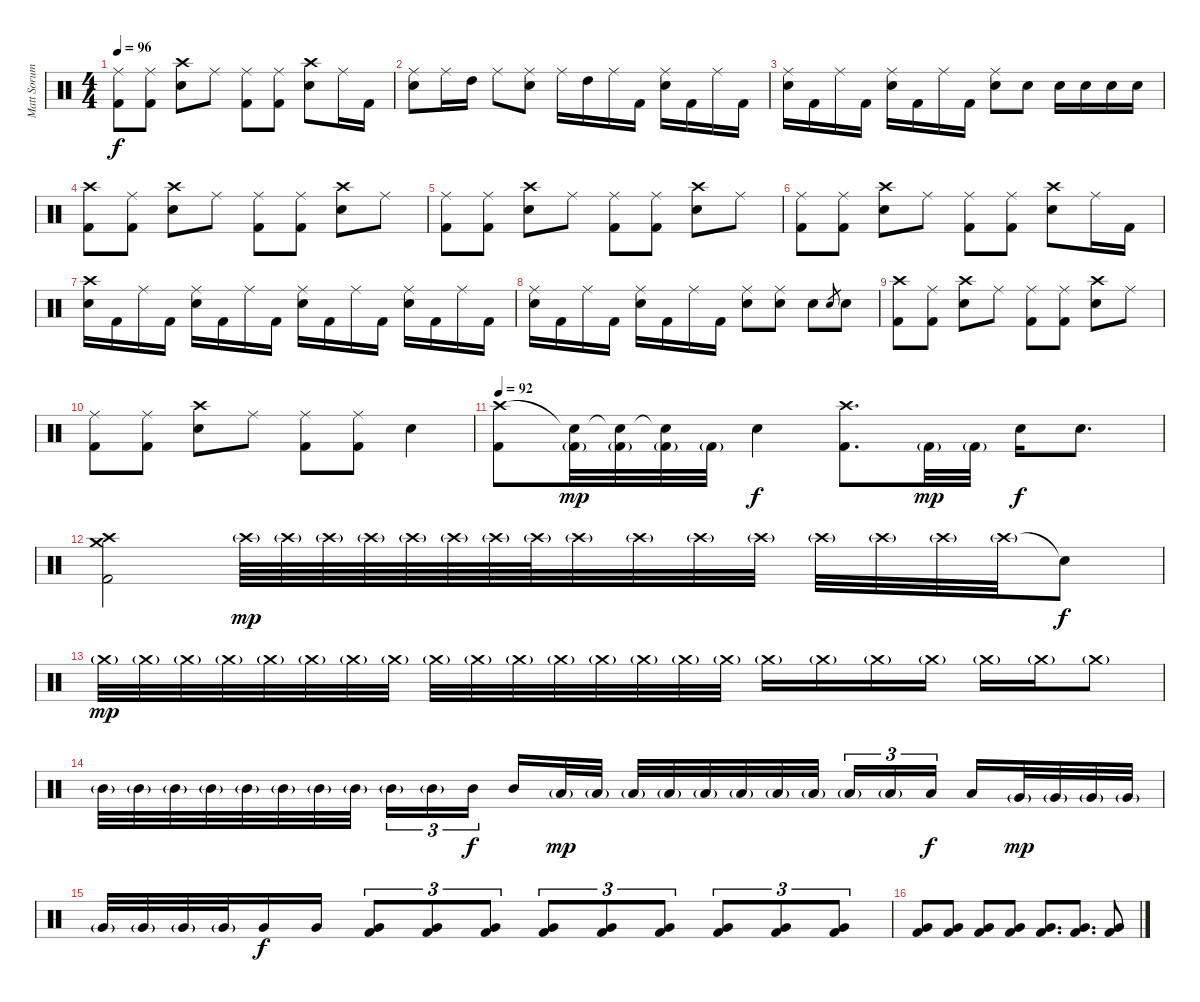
\track ("Matt Sorum" "Matt Sorum") {instrument percussion}
\staff {score}
\articulation defaults
\ts (4 4)
\tempo 96
\clef neutral
\ks c
("Ride (middle)" "Kick (hit) 2").8{dy f} ("Ride (middle)" "Kick (hit) 2").8 ("Crash high (hit)" "Electric Snare (hit)").8 "Ride (middle)".8 ("Ride (middle)" "Kick (hit) 2").8 ("Ride (middle)" "Kick (hit) 2").8 ("Crash high (hit)" "Electric Snare (hit)").8 "Ride (middle)".16 "Kick (hit) 2".16 |
("Ride (middle)" "Electric Snare (hit)").8 "Ride (middle)".16 "High Tom (hit)".16 "Ride (middle)".8 ("Ride (middle)" "Electric Snare (hit)").8 "Ride (middle)".16 "High Tom (hit)".16 "Ride (middle)".16 "Kick (hit) 2".16 ("Ride (middle)" "Electric Snare (hit)").16 "Kick (hit) 2".16 "Ride (middle)".16 "Kick (hit) 2".16 |
("Ride (middle)" "Electric Snare (hit)").16 "Kick (hit) 2".16 "Ride (middle)".16 "Kick (hit) 2".16 ("Ride (middle)" "Electric Snare (hit)").16 "Kick (hit) 2".16 "Ride (middle)".16 "Kick (hit) 2".16 ("Ride (middle)" "Electric Snare (hit)").8 "Electric Snare (hit)".8 "Electric Snare (hit)".16 "Electric Snare (hit)".16 "Electric Snare (hit)".16 "Electric Snare (hit)".16 |
("Crash high (hit)" "Kick (hit) 2").8 ("Ride (middle)" "Kick (hit) 2").8 ("Crash high (hit)" "Electric Snare (hit)").8 "Ride (middle)".8 ("Ride (middle)" "Kick (hit) 2").8 ("Ride (middle)" "Kick (hit) 2").8 ("Crash high (hit)" "Electric Snare (hit)").8 "Ride (middle)".8 |
("Ride (middle)" "Kick (hit) 2").8 ("Ride (middle)" "Kick (hit) 2").8 ("Crash high (hit)" "Electric Snare (hit)").8 "Ride (middle)".8 ("Ride (middle)" "Kick (hit) 2").8 ("Ride (middle)" "Kick (hit) 2").8 ("Crash high (hit)" "Electric Snare (hit)").8 "Ride (middle)".8 |
("Ride (middle)" "Kick (hit) 2").8 ("Ride (middle)" "Kick (hit) 2").8 ("Crash high (hit)" "Electric Snare (hit)").8 "Ride (middle)".8 ("Ride (middle)" "Kick (hit) 2").8 ("Ride (middle)" "Kick (hit) 2").8 ("Crash high (hit)" "Electric Snare (hit)").8 "Ride (middle)".16 "Kick (hit) 2".16 |
("Crash high (hit)" "Electric Snare (hit)").16 "Kick (hit) 2".16 "Ride (middle)".16 "Kick (hit) 2".16 ("Ride (middle)" "Electric Snare (hit)").16 "Kick (hit) 2".16 "Ride (middle)".16 "Kick (hit) 2".16 ("Ride (middle)" "Electric Snare (hit)").16 "Kick (hit) 2".16 "Ride (middle)".16 "Kick (hit) 2".16 ("Ride (middle)" "Electric Snare (hit)").16 "Kick (hit) 2".16 "Ride (middle)".16 "Kick (hit) 2".16 |
("Ride (middle)" "Electric Snare (hit)").16 "Kick (hit) 2".16 "Ride (middle)".16 "Kick (hit) 2".16 ("Ride (middle)" "Electric Snare (hit)").16 "Kick (hit) 2".16 "Ride (middle)".16 "Kick (hit) 2".16 ("Ride (middle)" "Electric Snare (hit)").8 ("Ride (middle)" "Electric Snare (hit)").8 "Electric Snare (hit)".8 "Electric Snare (hit)".8{gr} "Electric Snare (hit)".8 |
("Crash high (hit)" "Kick (hit) 2").8 ("Ride (middle)" "Kick (hit) 2").8 ("Crash high (hit)" "Electric Snare (hit)").8 "Ride (middle)".8 ("Ride (middle)" "Kick (hit) 2").8 ("Ride (middle)" "Kick (hit) 2").8 ("Crash high (hit)" "Electric Snare (hit)").8 "Ride (middle)".8 |
("Ride (middle)" "Kick (hit) 2").8 ("Ride (middle)" "Kick (hit) 2").8 ("Crash high (hit)" "Electric Snare (hit)").8 "Ride (middle)".8 ("Ride (middle)" "Kick (hit) 2").8 ("Ride (middle)" "Kick (hit) 2").8 "Electric Snare (hit)".4 |
\tempo 92
("Crash high (hit)" "Kick (hit) 2").8 ("Snare (hit)"{t} "Kick (hit) 2"{g}).32{dy mp} ("Snare (hit)"{t} "Kick (hit) 2"{g}).32 ("Snare (hit)"{t} "Kick (hit) 2"{g}).32 "Kick (hit) 2"{g}.32 "Electric Snare (hit)".4{dy f} ("Crash high (hit)" "Kick (hit) 2").8{d} "Kick (hit) 2"{g}.32{dy mp} "Kick (hit) 2"{g}.32 "Electric Snare (hit)".16{dy f} "Electric Snare (hit)".8{d} |
("Crash medium (hit)" "Crash high (hit)" "Kick (hit) 2").2 "Crash high (hit)"{g}.64{dy mp} "Crash high (hit)"{g}.64 "Crash high (hit)"{g}.64 "Crash high (hit)"{g}.64 "Crash high (hit)"{g}.64 "Crash high (hit)"{g}.64 "Crash high (hit)"{g}.64 "Crash high (hit)"{g}.64 "Crash high (hit)"{g}.32 "Crash high (hit)"{g}.32 "Crash high (hit)"{g}.32 "Crash high (hit)"{g}.32 "Crash high (hit)"{g}.32 "Crash high (hit)"{g}.32 "Crash high (hit)"{g}.32 "Crash high (hit)"{g}.32 "Snare (hit)"{t}.8{dy f} |
"Crash medium (hit)"{g}.32{dy mp} "Crash medium (hit)"{g}.32 "Crash medium (hit)"{g}.32 "Crash medium (hit)"{g}.32 "Crash medium (hit)"{g}.32 "Crash medium (hit)"{g}.32 "Crash medium (hit)"{g}.32 "Crash medium (hit)"{g}.32 "Crash medium (hit)"{g}.32 "Crash medium (hit)"{g}.32 "Crash medium (hit)"{g}.32 "Crash medium (hit)"{g}.32 "Crash medium (hit)"{g}.32 "Crash medium (hit)"{g}.32 "Crash medium (hit)"{g}.32 "Crash medium (hit)"{g}.32 "Crash medium (hit)"{g}.16 "Crash medium (hit)"{g}.16 "Crash medium (hit)"{g}.16 "Crash medium (hit)"{g}.16 "Crash medium (hit)"{g}.16 "Crash medium (hit)"{g}.16 "Crash medium (hit)"{g}.8 |
"Mid Tom (hit)"{g}.32 "Mid Tom (hit)"{g}.32 "Mid Tom (hit)"{g}.32 "Mid Tom (hit)"{g}.32 "Mid Tom (hit)"{g}.32 "Mid Tom (hit)"{g}.32 "Mid Tom (hit)"{g}.32 "Mid Tom (hit)"{g}.32 "Mid Tom (hit)"{g}.16{tu (3 2)} "Mid Tom (hit)"{g}.16{tu (3 2)} "Mid Tom (hit)".16{tu (3 2) dy f beam splitsecondary} "Mid Tom (hit)".16 "Low Tom (hit)"{g}.32{dy mp} "Low Tom (hit)"{g}.32 "Low Tom (hit)"{g}.32 "Low Tom (hit)"{g}.32 "Low Tom (hit)"{g}.32 "Low Tom (hit)"{g}.32 "Low Tom (hit)"{g}.32 "Low Tom (hit)"{g}.32{beam splitsecondary} "Low Tom (hit)"{g}.16{tu (3 2)} "Low Tom (hit)"{g}.16{tu (3 2)} "Low Tom (hit)".16{tu (3 2) dy f beam splitsecondary} "Low Tom (hit)".16 "Very Low Tom (hit)"{g}.32{dy mp} "Very Low Tom (hit)"{g}.32 "Very Low Tom (hit)"{g}.32 "Very Low Tom (hit)"{g}.32 |
"Very Low Tom (hit)"{g}.32 "Very Low Tom (hit)"{g}.32 "Very Low Tom (hit)"{g}.32 "Very Low Tom (hit)"{g}.32 "Very Low Tom (hit)".16{dy f} "Very Low Tom (hit)".16 ("Very Low Tom (hit)" "Kick (hit) 2").8{tu (3 2)} ("Very Low Tom (hit)" "Kick (hit) 2").8{tu (3 2)} ("Very Low Tom (hit)" "Kick (hit) 2").8{tu (3 2)} ("Very Low Tom (hit)" "Kick (hit) 2").8{tu (3 2)} ("Very Low Tom (hit)" "Kick (hit) 2").8{tu (3 2)} ("Very Low Tom (hit)" "Kick (hit) 2").8{tu (3 2)} ("Very Low Tom (hit)" "Kick (hit) 2").8{tu (3 2)} ("Very Low Tom (hit)" "Kick (hit) 2").8{tu (3 2)} ("Very Low Tom (hit)" "Kick (hit) 2").8{tu (3 2)} |
("Very Low Tom (hit)" "Kick (hit) 2").8 ("Very Low Tom (hit)" "Kick (hit) 2").8 ("Very Low Tom (hit)" "Kick (hit) 2").8 ("Very Low Tom (hit)" "Kick (hit) 2").8 ("Very Low Tom (hit)" "Kick (hit) 2").8{d} ("Very Low Tom (hit)" "Kick (hit) 2").8{d} ("Very Low Tom (hit)" "Kick (hit) 2").8
